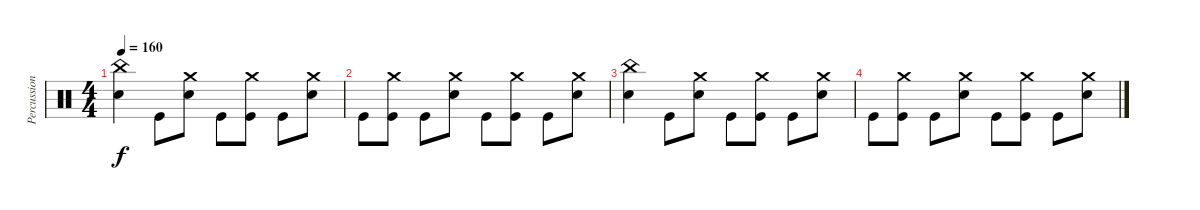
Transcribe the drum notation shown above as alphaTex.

\track ("Percussion" "Percussion") {instrument percussion}
\staff {score}
\articulation defaults
\ts (4 4)
\tempo 160
\clef neutral
\ks c
("Electric Snare (hit)" "China (hit)").4{dy f} "Kick (hit)".8 ("Electric Snare (hit)" "Crash medium (hit)").8 "Kick (hit)".8 ("Kick (hit)" "Crash medium (hit)").8 "Kick (hit)".8 ("Electric Snare (hit)" "Crash medium (hit)").8 |
"Kick (hit)".8 ("Kick (hit)" "Crash medium (hit)").8 "Kick (hit)".8 ("Electric Snare (hit)" "Crash medium (hit)").8 "Kick (hit)".8 ("Kick (hit)" "Crash medium (hit)").8 "Kick (hit)".8 ("Electric Snare (hit)" "Crash medium (hit)").8 |
("Electric Snare (hit)" "China (hit)").4 "Kick (hit)".8 ("Electric Snare (hit)" "Crash medium (hit)").8 "Kick (hit)".8 ("Kick (hit)" "Crash medium (hit)").8 "Kick (hit)".8 ("Electric Snare (hit)" "Crash medium (hit)").8 |
"Kick (hit)".8 ("Kick (hit)" "Crash medium (hit)").8 "Kick (hit)".8 ("Electric Snare (hit)" "Crash medium (hit)").8 "Kick (hit)".8 ("Kick (hit)" "Crash medium (hit)").8 "Kick (hit)".8 ("Electric Snare (hit)" "Crash medium (hit)").8
